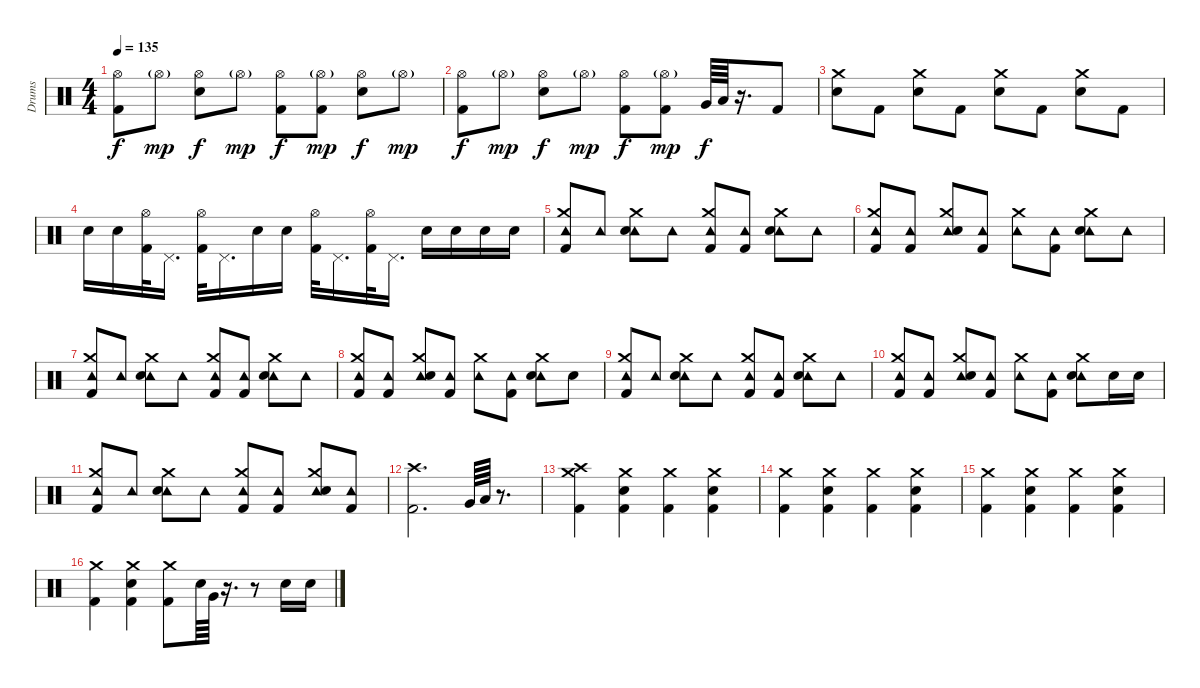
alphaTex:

\track ("Drums" "Drums") {solo instrument percussion bank 34}
\staff {score}
\articulation defaults
\ts (4 4)
\tempo 135
\clef neutral
\ks c
("Hi-Hat (open)" "Kick (hit) 2").8{dy f} "Hi-Hat (open)"{g}.8{dy mp} ("Hi-Hat (open)" "Electric Snare (hit)").8{dy f} "Hi-Hat (open)"{g}.8{dy mp} ("Hi-Hat (open)" "Kick (hit) 2").8{dy f} ("Hi-Hat (open)"{g} "Kick (hit) 2").8{dy mp} ("Hi-Hat (open)" "Electric Snare (hit)").8{dy f} "Hi-Hat (open)"{g}.8{dy mp} |
("Hi-Hat (open)" "Kick (hit) 2").8{dy f} "Hi-Hat (open)"{g}.8{dy mp} ("Hi-Hat (open)" "Electric Snare (hit)").8{dy f} "Hi-Hat (open)"{g}.8{dy mp} ("Hi-Hat (open)" "Kick (hit) 2").8{dy f} ("Hi-Hat (open)"{g} "Kick (hit) 2").8{dy mp} "Very Low Tom (hit)".64{dy f} "Low Floor Tom (hit)".64 r.16{d} "Kick (hit) 2".8 |
("Crash medium (hit)" "Electric Snare (hit)").8 "Kick (hit) 2".8 ("Crash medium (hit)" "Electric Snare (hit)").8 "Kick (hit) 2".8 ("Crash medium (hit)" "Electric Snare (hit)").8 "Kick (hit) 2".8 ("Crash medium (hit)" "Electric Snare (hit)").8 "Kick (hit) 2".8 |
"Electric Snare (hit)".16 "Electric Snare (hit)".16 ("Hi-Hat (open)" "Kick (hit) 2").32 "Pedal Hi-Hat (hit)".16{d} ("Hi-Hat (open)" "Kick (hit) 2").32 "Pedal Hi-Hat (hit)".16{d} "Electric Snare (hit)".16 "Electric Snare (hit)".16 ("Hi-Hat (open)" "Kick (hit) 2").32 "Pedal Hi-Hat (hit)".16{d} ("Hi-Hat (open)" "Kick (hit) 2").32 "Pedal Hi-Hat (hit)".16{d} "Electric Snare (hit)".16 "Electric Snare (hit)".16 "Electric Snare (hit)".16 "Electric Snare (hit)".16 |
("Crash medium (hit)" "Tambourine (hit)" "Kick (hit) 2").8 "Tambourine (hit)".8 ("Crash medium (hit)" "Tambourine (hit)" "Electric Snare (hit)").8 "Tambourine (hit)".8 ("Crash medium (hit)" "Tambourine (hit)" "Kick (hit) 2").8 ("Tambourine (hit)" "Kick (hit) 2").8 ("Crash medium (hit)" "Tambourine (hit)" "Electric Snare (hit)").8 "Tambourine (hit)".8 |
("Crash medium (hit)" "Tambourine (hit)" "Kick (hit) 2").8 ("Tambourine (hit)" "Kick (hit) 2").8 ("Crash medium (hit)" "Tambourine (hit)" "Electric Snare (hit)").8 ("Tambourine (hit)" "Kick (hit) 2").8 ("Crash medium (hit)" "Tambourine (hit)").8 ("Tambourine (hit)" "Kick (hit) 2").8 ("Crash medium (hit)" "Tambourine (hit)" "Electric Snare (hit)").8 "Tambourine (hit)".8 |
("Crash medium (hit)" "Tambourine (hit)" "Kick (hit) 2").8 "Tambourine (hit)".8 ("Crash medium (hit)" "Tambourine (hit)" "Electric Snare (hit)").8 "Tambourine (hit)".8 ("Crash medium (hit)" "Tambourine (hit)" "Kick (hit) 2").8 ("Tambourine (hit)" "Kick (hit) 2").8 ("Crash medium (hit)" "Tambourine (hit)" "Electric Snare (hit)").8 "Tambourine (hit)".8 |
("Crash medium (hit)" "Tambourine (hit)" "Kick (hit) 2").8 ("Tambourine (hit)" "Kick (hit) 2").8 ("Crash medium (hit)" "Tambourine (hit)" "Electric Snare (hit)").8 ("Tambourine (hit)" "Kick (hit) 2").8 ("Crash medium (hit)" "Tambourine (hit)").8 ("Tambourine (hit)" "Kick (hit) 2").8 ("Crash medium (hit)" "Tambourine (hit)" "Electric Snare (hit)").8 "Electric Snare (hit)".8 |
("Crash medium (hit)" "Tambourine (hit)" "Kick (hit) 2").8 "Tambourine (hit)".8 ("Crash medium (hit)" "Tambourine (hit)" "Electric Snare (hit)").8 "Tambourine (hit)".8 ("Crash medium (hit)" "Tambourine (hit)" "Kick (hit) 2").8 ("Tambourine (hit)" "Kick (hit) 2").8 ("Crash medium (hit)" "Tambourine (hit)" "Electric Snare (hit)").8 "Tambourine (hit)".8 |
("Crash medium (hit)" "Tambourine (hit)" "Kick (hit) 2").8 ("Tambourine (hit)" "Kick (hit) 2").8 ("Crash medium (hit)" "Tambourine (hit)" "Electric Snare (hit)").8 ("Tambourine (hit)" "Kick (hit) 2").8 ("Crash medium (hit)" "Tambourine (hit)").8 ("Tambourine (hit)" "Kick (hit) 2").8 ("Crash medium (hit)" "Tambourine (hit)" "Electric Snare (hit)").8 "Electric Snare (hit)".16 "Electric Snare (hit)".16 |
("Crash medium (hit)" "Tambourine (hit)" "Kick (hit) 2").8 "Tambourine (hit)".8 ("Crash medium (hit)" "Tambourine (hit)" "Electric Snare (hit)").8 "Tambourine (hit)".8 ("Crash medium (hit)" "Tambourine (hit)" "Kick (hit) 2").8 ("Tambourine (hit)" "Kick (hit) 2").8 ("Crash medium (hit)" "Tambourine (hit)" "Electric Snare (hit)").8 ("Tambourine (hit)" "Kick (hit) 2").8 |
("Crash high (hit)" "Kick (hit) 2").2{d} "Very Low Tom (hit)".64 "Low Floor Tom (hit)".64 r.8{d} |
("Crash high (hit)" "Crash medium (hit)" "Kick (hit) 2").4 ("Crash medium (hit)" "Electric Snare (hit)" "Kick (hit) 2").4 ("Crash medium (hit)" "Kick (hit) 2").4 ("Crash medium (hit)" "Electric Snare (hit)" "Kick (hit) 2").4 |
("Crash medium (hit)" "Kick (hit) 2").4 ("Crash medium (hit)" "Electric Snare (hit)" "Kick (hit) 2").4 ("Crash medium (hit)" "Kick (hit) 2").4 ("Crash medium (hit)" "Electric Snare (hit)" "Kick (hit) 2").4 |
("Crash medium (hit)" "Kick (hit) 2").4 ("Crash medium (hit)" "Electric Snare (hit)" "Kick (hit) 2").4 ("Crash medium (hit)" "Kick (hit) 2").4 ("Crash medium (hit)" "Electric Snare (hit)" "Kick (hit) 2").4 |
("Crash medium (hit)" "Kick (hit) 2").4 ("Crash medium (hit)" "Electric Snare (hit)" "Kick (hit) 2").4 ("Crash medium (hit)" "Kick (hit) 2").8 "Electric Snare (hit)".64 "Very Low Tom (hit)".64 r.16{d} r.8 "Electric Snare (hit)".16 "Electric Snare (hit)".16
